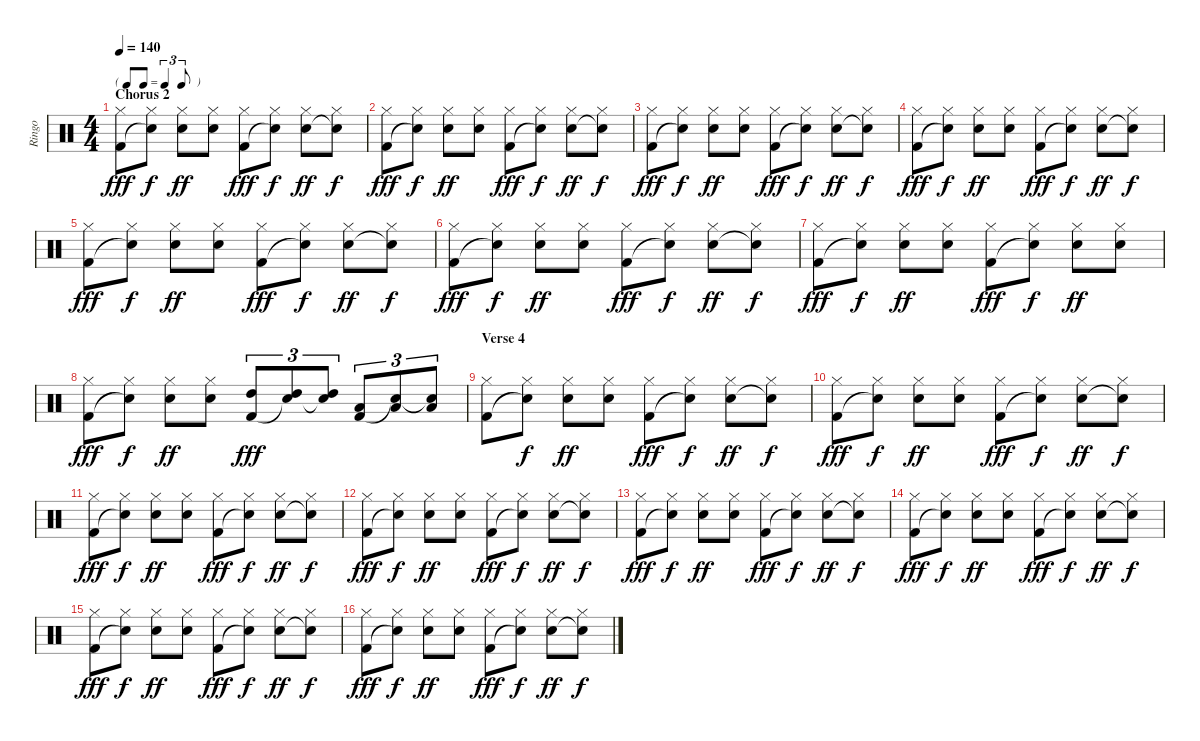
\track ("Ringo" "Ringo") {instrument percussion}
\staff {score}
\articulation defaults
\ts (4 4)
\tf triplet8th
\section ("" "Chorus 2")
\tempo 140
\clef neutral
\ks c
("Hi-Hat (closed)" "Kick (hit) 2").8{dy fff} ("Hi-Hat (closed)" "Snare (hit)"{t}).8{dy f} ("Hi-Hat (closed)" "Electric Snare (hit)").8{dy ff} ("Hi-Hat (closed)" "Electric Snare (hit)").8 ("Hi-Hat (closed)" "Kick (hit) 2").8{dy fff} ("Hi-Hat (closed)" "Snare (hit)"{t}).8{dy f} ("Hi-Hat (closed)" "Electric Snare (hit)").8{dy ff} ("Hi-Hat (closed)" "Snare (hit)"{t}).8{dy f} |
("Hi-Hat (closed)" "Kick (hit) 2").8{dy fff} ("Hi-Hat (closed)" "Snare (hit)"{t}).8{dy f} ("Hi-Hat (closed)" "Electric Snare (hit)").8{dy ff} ("Hi-Hat (closed)" "Electric Snare (hit)").8 ("Hi-Hat (closed)" "Kick (hit) 2").8{dy fff} ("Hi-Hat (closed)" "Snare (hit)"{t}).8{dy f} ("Hi-Hat (closed)" "Electric Snare (hit)").8{dy ff} ("Hi-Hat (closed)" "Snare (hit)"{t}).8{dy f} |
("Hi-Hat (closed)" "Kick (hit) 2").8{dy fff} ("Hi-Hat (closed)" "Snare (hit)"{t}).8{dy f} ("Hi-Hat (closed)" "Electric Snare (hit)").8{dy ff} ("Hi-Hat (closed)" "Electric Snare (hit)").8 ("Hi-Hat (closed)" "Kick (hit) 2").8{dy fff} ("Hi-Hat (closed)" "Snare (hit)"{t}).8{dy f} ("Hi-Hat (closed)" "Electric Snare (hit)").8{dy ff} ("Hi-Hat (closed)" "Snare (hit)"{t}).8{dy f} |
("Hi-Hat (closed)" "Kick (hit) 2").8{dy fff} ("Hi-Hat (closed)" "Snare (hit)"{t}).8{dy f} ("Hi-Hat (closed)" "Electric Snare (hit)").8{dy ff} ("Hi-Hat (closed)" "Electric Snare (hit)").8 ("Hi-Hat (closed)" "Kick (hit) 2").8{dy fff} ("Hi-Hat (closed)" "Snare (hit)"{t}).8{dy f} ("Hi-Hat (closed)" "Electric Snare (hit)").8{dy ff} ("Hi-Hat (closed)" "Snare (hit)"{t}).8{dy f} |
("Hi-Hat (closed)" "Kick (hit) 2").8{dy fff} ("Hi-Hat (closed)" "Snare (hit)"{t}).8{dy f} ("Hi-Hat (closed)" "Electric Snare (hit)").8{dy ff} ("Hi-Hat (closed)" "Electric Snare (hit)").8 ("Hi-Hat (closed)" "Kick (hit) 2").8{dy fff} ("Hi-Hat (closed)" "Snare (hit)"{t}).8{dy f} ("Hi-Hat (closed)" "Electric Snare (hit)").8{dy ff} ("Hi-Hat (closed)" "Snare (hit)"{t}).8{dy f} |
("Hi-Hat (closed)" "Kick (hit) 2").8{dy fff} ("Hi-Hat (closed)" "Snare (hit)"{t}).8{dy f} ("Hi-Hat (closed)" "Electric Snare (hit)").8{dy ff} ("Hi-Hat (closed)" "Electric Snare (hit)").8 ("Hi-Hat (closed)" "Kick (hit) 2").8{dy fff} ("Hi-Hat (closed)" "Snare (hit)"{t}).8{dy f} ("Hi-Hat (closed)" "Electric Snare (hit)").8{dy ff} ("Hi-Hat (closed)" "Snare (hit)"{t}).8{dy f} |
("Hi-Hat (closed)" "Kick (hit) 2").8{dy fff} ("Hi-Hat (closed)" "Snare (hit)"{t}).8{dy f} ("Hi-Hat (closed)" "Electric Snare (hit)").8{dy ff} ("Hi-Hat (closed)" "Electric Snare (hit)").8 ("Hi-Hat (closed)" "Kick (hit) 2").8{dy fff} ("Hi-Hat (closed)" "Snare (hit)"{t}).8{dy f} ("Hi-Hat (closed)" "Electric Snare (hit)").8{dy ff} ("Hi-Hat (closed)" "Electric Snare (hit)").8 |
("Hi-Hat (closed)" "Kick (hit) 2").8{dy fff} ("Hi-Hat (closed)" "Snare (hit)"{t}).8{dy f} ("Hi-Hat (closed)" "Electric Snare (hit)").8{dy ff} ("Hi-Hat (closed)" "Electric Snare (hit)").8 ("High Tom (hit)" "Kick (hit) 2").8{tu (3 2) dy fff} ("High Tom (hit)" "Snare (hit)"{t}).8{tu (3 2)} ("High Tom (hit)" "Snare (hit)"{t}).8{tu (3 2)} ("Low Tom (hit)" "Kick (hit) 2").8{tu (3 2)} ("Low Tom (hit)" "Snare (hit)"{t}).8{tu (3 2)} ("Low Tom (hit)" "Snare (hit)"{t}).8{tu (3 2)} |
\section ("" "Verse 4")
("Hi-Hat (closed)" "Kick (hit) 2").8 ("Hi-Hat (closed)" "Snare (hit)"{t}).8{dy f} ("Hi-Hat (closed)" "Electric Snare (hit)").8{dy ff} ("Hi-Hat (closed)" "Electric Snare (hit)").8 ("Hi-Hat (closed)" "Kick (hit) 2").8{dy fff} ("Hi-Hat (closed)" "Snare (hit)"{t}).8{dy f} ("Hi-Hat (closed)" "Electric Snare (hit)").8{dy ff} ("Hi-Hat (closed)" "Snare (hit)"{t}).8{dy f} |
("Hi-Hat (closed)" "Kick (hit) 2").8{dy fff} ("Hi-Hat (closed)" "Snare (hit)"{t}).8{dy f} ("Hi-Hat (closed)" "Electric Snare (hit)").8{dy ff} ("Hi-Hat (closed)" "Electric Snare (hit)").8 ("Hi-Hat (closed)" "Kick (hit) 2").8{dy fff} ("Hi-Hat (closed)" "Snare (hit)"{t}).8{dy f} ("Hi-Hat (closed)" "Electric Snare (hit)").8{dy ff} ("Hi-Hat (closed)" "Snare (hit)"{t}).8{dy f} |
("Hi-Hat (closed)" "Kick (hit) 2").8{dy fff} ("Hi-Hat (closed)" "Snare (hit)"{t}).8{dy f} ("Hi-Hat (closed)" "Electric Snare (hit)").8{dy ff} ("Hi-Hat (closed)" "Electric Snare (hit)").8 ("Hi-Hat (closed)" "Kick (hit) 2").8{dy fff} ("Hi-Hat (closed)" "Snare (hit)"{t}).8{dy f} ("Hi-Hat (closed)" "Electric Snare (hit)").8{dy ff} ("Hi-Hat (closed)" "Snare (hit)"{t}).8{dy f} |
("Hi-Hat (closed)" "Kick (hit) 2").8{dy fff} ("Hi-Hat (closed)" "Snare (hit)"{t}).8{dy f} ("Hi-Hat (closed)" "Electric Snare (hit)").8{dy ff} ("Hi-Hat (closed)" "Electric Snare (hit)").8 ("Hi-Hat (closed)" "Kick (hit) 2").8{dy fff} ("Hi-Hat (closed)" "Snare (hit)"{t}).8{dy f} ("Hi-Hat (closed)" "Electric Snare (hit)").8{dy ff} ("Hi-Hat (closed)" "Snare (hit)"{t}).8{dy f} |
("Hi-Hat (closed)" "Kick (hit) 2").8{dy fff} ("Hi-Hat (closed)" "Snare (hit)"{t}).8{dy f} ("Hi-Hat (closed)" "Electric Snare (hit)").8{dy ff} ("Hi-Hat (closed)" "Electric Snare (hit)").8 ("Hi-Hat (closed)" "Kick (hit) 2").8{dy fff} ("Hi-Hat (closed)" "Snare (hit)"{t}).8{dy f} ("Hi-Hat (closed)" "Electric Snare (hit)").8{dy ff} ("Hi-Hat (closed)" "Snare (hit)"{t}).8{dy f} |
("Hi-Hat (closed)" "Kick (hit) 2").8{dy fff} ("Hi-Hat (closed)" "Snare (hit)"{t}).8{dy f} ("Hi-Hat (closed)" "Electric Snare (hit)").8{dy ff} ("Hi-Hat (closed)" "Electric Snare (hit)").8 ("Hi-Hat (closed)" "Kick (hit) 2").8{dy fff} ("Hi-Hat (closed)" "Snare (hit)"{t}).8{dy f} ("Hi-Hat (closed)" "Electric Snare (hit)").8{dy ff} ("Hi-Hat (closed)" "Snare (hit)"{t}).8{dy f} |
("Hi-Hat (closed)" "Kick (hit) 2").8{dy fff} ("Hi-Hat (closed)" "Snare (hit)"{t}).8{dy f} ("Hi-Hat (closed)" "Electric Snare (hit)").8{dy ff} ("Hi-Hat (closed)" "Electric Snare (hit)").8 ("Hi-Hat (closed)" "Kick (hit) 2").8{dy fff} ("Hi-Hat (closed)" "Snare (hit)"{t}).8{dy f} ("Hi-Hat (closed)" "Electric Snare (hit)").8{dy ff} ("Hi-Hat (closed)" "Snare (hit)"{t}).8{dy f} |
("Hi-Hat (closed)" "Kick (hit) 2").8{dy fff} ("Hi-Hat (closed)" "Snare (hit)"{t}).8{dy f} ("Hi-Hat (closed)" "Electric Snare (hit)").8{dy ff} ("Hi-Hat (closed)" "Electric Snare (hit)").8 ("Hi-Hat (closed)" "Kick (hit) 2").8{dy fff} ("Hi-Hat (closed)" "Snare (hit)"{t}).8{dy f} ("Hi-Hat (closed)" "Electric Snare (hit)").8{dy ff} ("Hi-Hat (closed)" "Snare (hit)"{t}).8{dy f}
